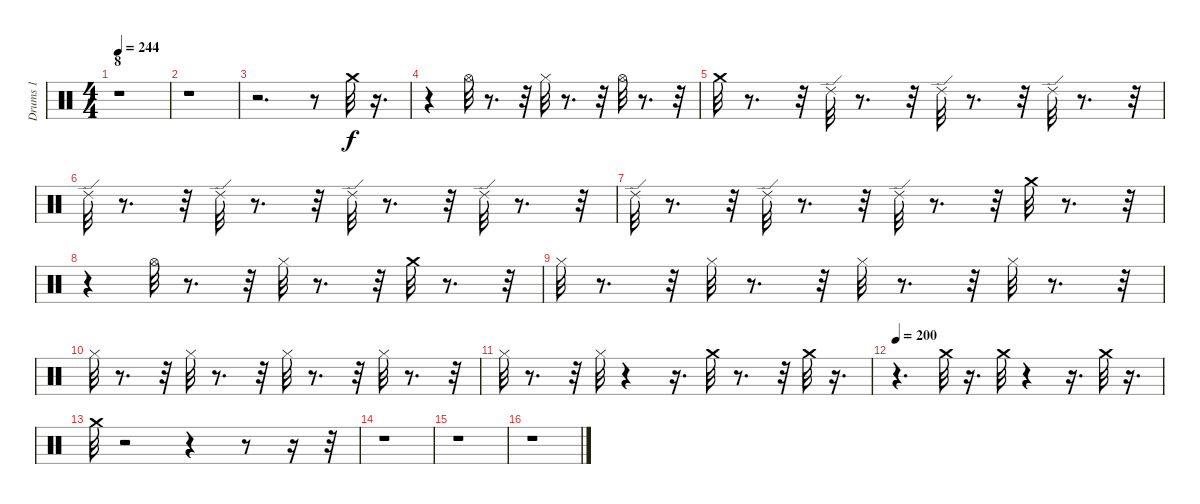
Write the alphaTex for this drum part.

\track ("Drums 1" "Drums 1") {instrument percussion}
\staff {score}
\articulation defaults
\ts (4 4)
\section ("" "8")
\tempo 244
\clef neutral
\ks c
r.1{dy f} |
r.1 |
r.2{d} r.8 "Crash medium (hit)".32 r.16{d} |
r.4 "Hi-Hat (open)".32 r.8{d} r.32 "Hi-Hat (closed)".32 r.8{d} r.32 "Hi-Hat (open)".32 r.8{d} r.32 |
"Crash medium (hit)".32 r.8{d} r.32 "Ride (edge) 2".32 r.8{d} r.32 "Ride (edge) 2".32 r.8{d} r.32 "Ride (edge) 2".32 r.8{d} r.32 |
"Ride (edge) 2".32 r.8{d} r.32 "Ride (edge) 2".32 r.8{d} r.32 "Ride (edge) 2".32 r.8{d} r.32 "Ride (edge) 2".32 r.8{d} r.32 |
"Ride (edge) 2".32 r.8{d} r.32 "Ride (edge) 2".32 r.8{d} r.32 "Ride (edge) 2".32 r.8{d} r.32 "Crash medium (hit)".32 r.8{d} r.32 |
r.4 "Hi-Hat (open)".32 r.8{d} r.32 "Hi-Hat (closed)".32 r.8{d} r.32 "Crash medium (hit)".32 r.8{d} r.32 |
"Hi-Hat (closed)".32 r.8{d} r.32 "Hi-Hat (closed)".32 r.8{d} r.32 "Hi-Hat (closed)".32 r.8{d} r.32 "Hi-Hat (closed)".32 r.8{d} r.32 |
"Hi-Hat (closed)".32 r.8{d} r.32 "Hi-Hat (closed)".32 r.8{d} r.32 "Hi-Hat (closed)".32 r.8{d} r.32 "Hi-Hat (closed)".32 r.8{d} r.32 |
"Hi-Hat (closed)".32 r.8{d} r.32 "Hi-Hat (closed)".32 r.4 r.16{d} "Crash medium (hit)".32 r.8{d} r.32 "Crash medium (hit)".32 r.16{d} |
\tempo 200
r.4{d} "Crash medium (hit)".32 r.16{d} "Crash medium (hit)".32 r.4 r.16{d} "Crash medium (hit)".32 r.16{d} |
"Crash medium (hit)".32 r.2 r.4 r.8 r.16 r.32 |
r.1 |
r.1 |
r.1
